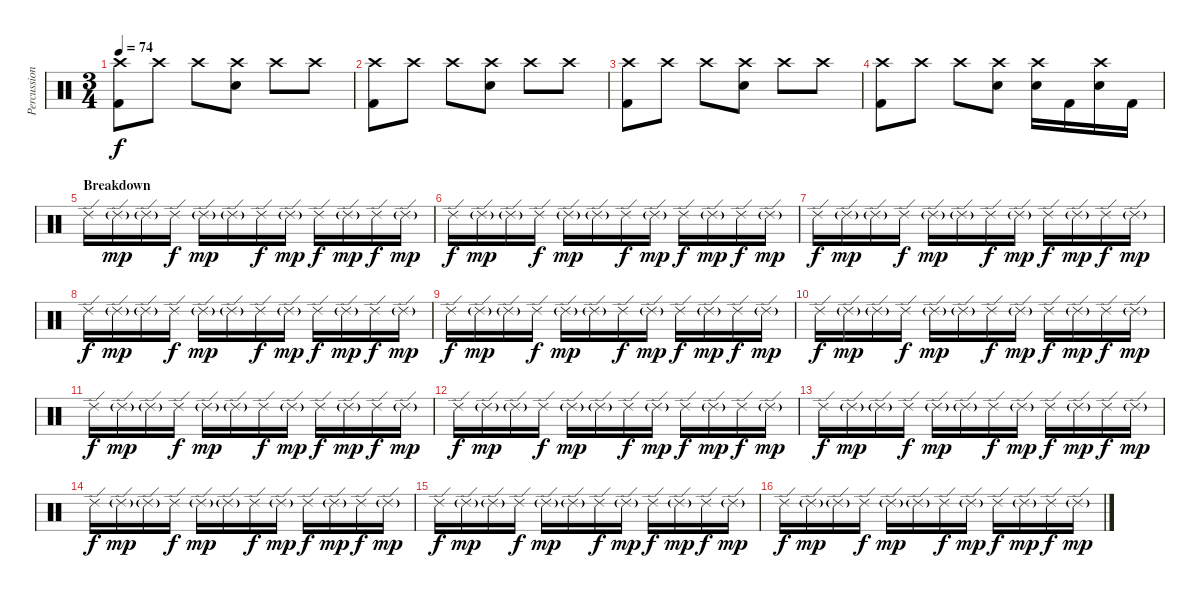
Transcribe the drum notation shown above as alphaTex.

\track ("Percussion" "Percussion") {instrument percussion}
\staff {score}
\articulation defaults
\ts (3 4)
\tempo 74
\clef neutral
\ks c
("Crash high (hit)" "Kick (hit) 2").8{dy f} "Crash high (hit)".8 "Crash high (hit)".8 ("Crash high (hit)" "Electric Snare (hit)").8 "Crash high (hit)".8 "Crash high (hit)".8 |
("Crash high (hit)" "Kick (hit) 2").8 "Crash high (hit)".8 "Crash high (hit)".8 ("Crash high (hit)" "Electric Snare (hit)").8 "Crash high (hit)".8 "Crash high (hit)".8 |
("Crash high (hit)" "Kick (hit) 2").8 "Crash high (hit)".8 "Crash high (hit)".8 ("Crash high (hit)" "Electric Snare (hit)").8 "Crash high (hit)".8 "Crash high (hit)".8 |
("Crash high (hit)" "Kick (hit) 2").8 "Crash high (hit)".8 "Crash high (hit)".8 ("Crash high (hit)" "Electric Snare (hit)").8 ("Crash high (hit)" "Electric Snare (hit)").16 "Kick (hit) 2".16 ("Crash high (hit)" "Electric Snare (hit)").16 "Kick (hit) 2".16 |
\section ("" "Breakdown")
"Ride (edge) 2".16 "Ride (edge) 2"{g}.16{dy mp} "Ride (edge) 2"{g}.16 "Ride (edge) 2".16{dy f} "Ride (edge) 2"{g}.16{dy mp} "Ride (edge) 2"{g}.16 "Ride (edge) 2".16{dy f} "Ride (edge) 2"{g}.16{dy mp} "Ride (edge) 2".16{dy f} "Ride (edge) 2"{g}.16{dy mp} "Ride (edge) 2".16{dy f} "Ride (edge) 2"{g}.16{dy mp} |
"Ride (edge) 2".16{dy f} "Ride (edge) 2"{g}.16{dy mp} "Ride (edge) 2"{g}.16 "Ride (edge) 2".16{dy f} "Ride (edge) 2"{g}.16{dy mp} "Ride (edge) 2"{g}.16 "Ride (edge) 2".16{dy f} "Ride (edge) 2"{g}.16{dy mp} "Ride (edge) 2".16{dy f} "Ride (edge) 2"{g}.16{dy mp} "Ride (edge) 2".16{dy f} "Ride (edge) 2"{g}.16{dy mp} |
"Ride (edge) 2".16{dy f} "Ride (edge) 2"{g}.16{dy mp} "Ride (edge) 2"{g}.16 "Ride (edge) 2".16{dy f} "Ride (edge) 2"{g}.16{dy mp} "Ride (edge) 2"{g}.16 "Ride (edge) 2".16{dy f} "Ride (edge) 2"{g}.16{dy mp} "Ride (edge) 2".16{dy f} "Ride (edge) 2"{g}.16{dy mp} "Ride (edge) 2".16{dy f} "Ride (edge) 2"{g}.16{dy mp} |
"Ride (edge) 2".16{dy f} "Ride (edge) 2"{g}.16{dy mp} "Ride (edge) 2"{g}.16 "Ride (edge) 2".16{dy f} "Ride (edge) 2"{g}.16{dy mp} "Ride (edge) 2"{g}.16 "Ride (edge) 2".16{dy f} "Ride (edge) 2"{g}.16{dy mp} "Ride (edge) 2".16{dy f} "Ride (edge) 2"{g}.16{dy mp} "Ride (edge) 2".16{dy f} "Ride (edge) 2"{g}.16{dy mp} |
"Ride (edge) 2".16{dy f} "Ride (edge) 2"{g}.16{dy mp} "Ride (edge) 2"{g}.16 "Ride (edge) 2".16{dy f} "Ride (edge) 2"{g}.16{dy mp} "Ride (edge) 2"{g}.16 "Ride (edge) 2".16{dy f} "Ride (edge) 2"{g}.16{dy mp} "Ride (edge) 2".16{dy f} "Ride (edge) 2"{g}.16{dy mp} "Ride (edge) 2".16{dy f} "Ride (edge) 2"{g}.16{dy mp} |
"Ride (edge) 2".16{dy f} "Ride (edge) 2"{g}.16{dy mp} "Ride (edge) 2"{g}.16 "Ride (edge) 2".16{dy f} "Ride (edge) 2"{g}.16{dy mp} "Ride (edge) 2"{g}.16 "Ride (edge) 2".16{dy f} "Ride (edge) 2"{g}.16{dy mp} "Ride (edge) 2".16{dy f} "Ride (edge) 2"{g}.16{dy mp} "Ride (edge) 2".16{dy f} "Ride (edge) 2"{g}.16{dy mp} |
"Ride (edge) 2".16{dy f} "Ride (edge) 2"{g}.16{dy mp} "Ride (edge) 2"{g}.16 "Ride (edge) 2".16{dy f} "Ride (edge) 2"{g}.16{dy mp} "Ride (edge) 2"{g}.16 "Ride (edge) 2".16{dy f} "Ride (edge) 2"{g}.16{dy mp} "Ride (edge) 2".16{dy f} "Ride (edge) 2"{g}.16{dy mp} "Ride (edge) 2".16{dy f} "Ride (edge) 2"{g}.16{dy mp} |
"Ride (edge) 2".16{dy f} "Ride (edge) 2"{g}.16{dy mp} "Ride (edge) 2"{g}.16 "Ride (edge) 2".16{dy f} "Ride (edge) 2"{g}.16{dy mp} "Ride (edge) 2"{g}.16 "Ride (edge) 2".16{dy f} "Ride (edge) 2"{g}.16{dy mp} "Ride (edge) 2".16{dy f} "Ride (edge) 2"{g}.16{dy mp} "Ride (edge) 2".16{dy f} "Ride (edge) 2"{g}.16{dy mp} |
"Ride (edge) 2".16{dy f} "Ride (edge) 2"{g}.16{dy mp} "Ride (edge) 2"{g}.16 "Ride (edge) 2".16{dy f} "Ride (edge) 2"{g}.16{dy mp} "Ride (edge) 2"{g}.16 "Ride (edge) 2".16{dy f} "Ride (edge) 2"{g}.16{dy mp} "Ride (edge) 2".16{dy f} "Ride (edge) 2"{g}.16{dy mp} "Ride (edge) 2".16{dy f} "Ride (edge) 2"{g}.16{dy mp} |
"Ride (edge) 2".16{dy f} "Ride (edge) 2"{g}.16{dy mp} "Ride (edge) 2"{g}.16 "Ride (edge) 2".16{dy f} "Ride (edge) 2"{g}.16{dy mp} "Ride (edge) 2"{g}.16 "Ride (edge) 2".16{dy f} "Ride (edge) 2"{g}.16{dy mp} "Ride (edge) 2".16{dy f} "Ride (edge) 2"{g}.16{dy mp} "Ride (edge) 2".16{dy f} "Ride (edge) 2"{g}.16{dy mp} |
"Ride (edge) 2".16{dy f} "Ride (edge) 2"{g}.16{dy mp} "Ride (edge) 2"{g}.16 "Ride (edge) 2".16{dy f} "Ride (edge) 2"{g}.16{dy mp} "Ride (edge) 2"{g}.16 "Ride (edge) 2".16{dy f} "Ride (edge) 2"{g}.16{dy mp} "Ride (edge) 2".16{dy f} "Ride (edge) 2"{g}.16{dy mp} "Ride (edge) 2".16{dy f} "Ride (edge) 2"{g}.16{dy mp} |
"Ride (edge) 2".16{dy f} "Ride (edge) 2"{g}.16{dy mp} "Ride (edge) 2"{g}.16 "Ride (edge) 2".16{dy f} "Ride (edge) 2"{g}.16{dy mp} "Ride (edge) 2"{g}.16 "Ride (edge) 2".16{dy f} "Ride (edge) 2"{g}.16{dy mp} "Ride (edge) 2".16{dy f} "Ride (edge) 2"{g}.16{dy mp} "Ride (edge) 2".16{dy f} "Ride (edge) 2"{g}.16{dy mp}
